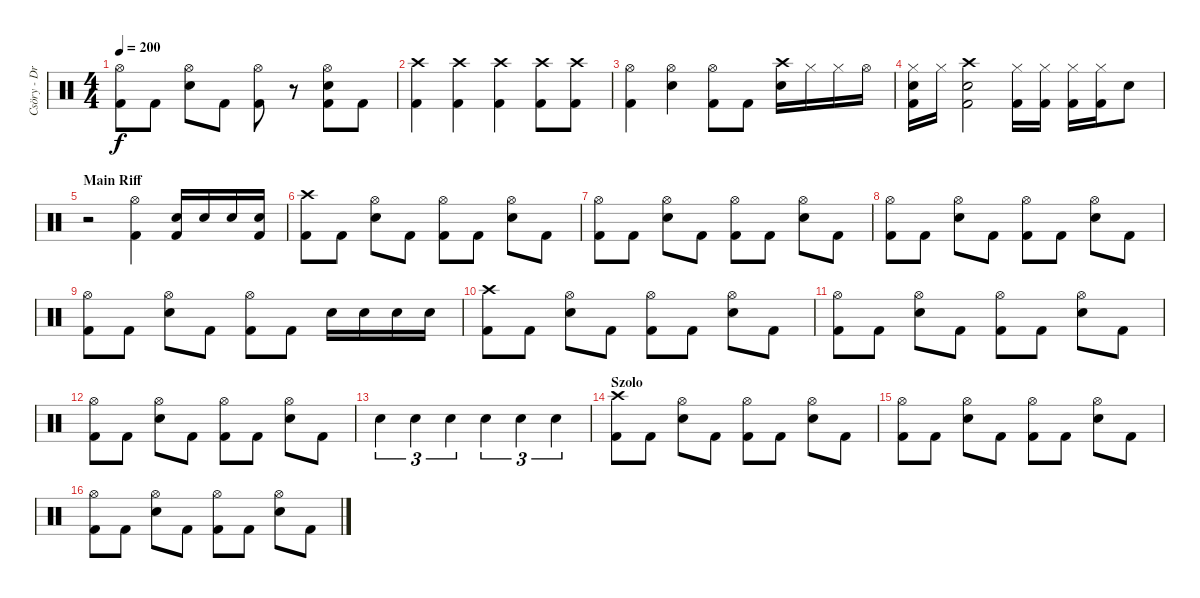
\track ("Csöry - DrumZ" "Csöry - Dr") {instrument percussion}
\staff {score}
\articulation defaults
\ts (4 4)
\tempo 200
\clef neutral
\ks c
("Hi-Hat (open)" "Kick (hit) 2").8{dy f} "Kick (hit) 2".8 ("Hi-Hat (open)" "Snare (hit) 2").8 "Kick (hit) 2".8 ("Hi-Hat (open)" "Kick (hit) 2").8 r.8 ("Hi-Hat (open)" "Snare (hit) 2" "Kick (hit) 2").8 "Kick (hit) 2".8 |
("Crash high (hit)" "Kick (hit) 2").4 ("Crash high (hit)" "Kick (hit) 2").4 ("Crash high (hit)" "Kick (hit) 2").4 ("Crash high (hit)" "Kick (hit) 2").8 ("Crash high (hit)" "Kick (hit) 2").8 |
("Hi-Hat (open)" "Kick (hit) 2").4 ("Hi-Hat (open)" "Snare (hit) 2").4 ("Hi-Hat (open)" "Kick (hit) 2").8 "Kick (hit) 2".8 ("Crash high (hit)" "Snare (hit) 2").16 "Hi-Hat (closed)".16 "Hi-Hat (closed)".16 "Hi-Hat (open)".16 |
("Hi-Hat (closed)" "Snare (hit) 2" "Kick (hit) 2").16 "Hi-Hat (closed)".16 ("Crash high (hit)" "Snare (hit) 2" "Kick (hit) 2").2 ("Hi-Hat (closed)" "Kick (hit) 2").16 ("Hi-Hat (closed)" "Kick (hit) 2").16 ("Hi-Hat (closed)" "Kick (hit) 2").16 ("Hi-Hat (closed)" "Kick (hit) 2").16 "Snare (hit) 2".8 |
\section ("" "Main Riff")
r.2 ("Hi-Hat (open)" "Kick (hit) 2").4 ("Snare (hit) 2" "Kick (hit) 2").16 "Snare (hit) 2".16 "Snare (hit) 2".16 ("Snare (hit) 2" "Kick (hit) 2").16 |
("Crash high (hit)" "Kick (hit) 2").8 "Kick (hit) 2".8 ("Hi-Hat (open)" "Snare (hit) 2").8 "Kick (hit) 2".8 ("Hi-Hat (open)" "Kick (hit) 2").8 "Kick (hit) 2".8 ("Hi-Hat (open)" "Snare (hit) 2").8 "Kick (hit) 2".8 |
("Hi-Hat (open)" "Kick (hit) 2").8 "Kick (hit) 2".8 ("Hi-Hat (open)" "Snare (hit) 2").8 "Kick (hit) 2".8 ("Hi-Hat (open)" "Kick (hit) 2").8 "Kick (hit) 2".8 ("Hi-Hat (open)" "Snare (hit) 2").8 "Kick (hit) 2".8 |
("Hi-Hat (open)" "Kick (hit) 2").8 "Kick (hit) 2".8 ("Hi-Hat (open)" "Snare (hit) 2").8 "Kick (hit) 2".8 ("Hi-Hat (open)" "Kick (hit) 2").8 "Kick (hit) 2".8 ("Hi-Hat (open)" "Snare (hit) 2").8 "Kick (hit) 2".8 |
("Hi-Hat (open)" "Kick (hit) 2").8 "Kick (hit) 2".8 ("Hi-Hat (open)" "Snare (hit) 2").8 "Kick (hit) 2".8 ("Hi-Hat (open)" "Kick (hit) 2").8 "Kick (hit) 2".8 "Snare (hit) 2".16 "Snare (hit) 2".16 "Snare (hit) 2".16 "Snare (hit) 2".16 |
("Crash high (hit)" "Kick (hit) 2").8 "Kick (hit) 2".8 ("Hi-Hat (open)" "Snare (hit) 2").8 "Kick (hit) 2".8 ("Hi-Hat (open)" "Kick (hit) 2").8 "Kick (hit) 2".8 ("Hi-Hat (open)" "Snare (hit) 2").8 "Kick (hit) 2".8 |
("Hi-Hat (open)" "Kick (hit) 2").8 "Kick (hit) 2".8 ("Hi-Hat (open)" "Snare (hit) 2").8 "Kick (hit) 2".8 ("Hi-Hat (open)" "Kick (hit) 2").8 "Kick (hit) 2".8 ("Hi-Hat (open)" "Snare (hit) 2").8 "Kick (hit) 2".8 |
("Hi-Hat (open)" "Kick (hit) 2").8 "Kick (hit) 2".8 ("Hi-Hat (open)" "Snare (hit) 2").8 "Kick (hit) 2".8 ("Hi-Hat (open)" "Kick (hit) 2").8 "Kick (hit) 2".8 ("Hi-Hat (open)" "Snare (hit) 2").8 "Kick (hit) 2".8 |
"Snare (hit) 2".4{tu (3 2)} "Snare (hit) 2".4{tu (3 2)} "Snare (hit) 2".4{tu (3 2)} "Snare (hit) 2".4{tu (3 2)} "Snare (hit) 2".4{tu (3 2)} "Snare (hit) 2".4{tu (3 2)} |
\section ("" "Szolo")
("Crash high (hit)" "Kick (hit) 2").8 "Kick (hit) 2".8 ("Hi-Hat (open)" "Snare (hit) 2").8 "Kick (hit) 2".8 ("Hi-Hat (open)" "Kick (hit) 2").8 "Kick (hit) 2".8 ("Hi-Hat (open)" "Snare (hit) 2").8 "Kick (hit) 2".8 |
("Hi-Hat (open)" "Kick (hit) 2").8 "Kick (hit) 2".8 ("Hi-Hat (open)" "Snare (hit) 2").8 "Kick (hit) 2".8 ("Hi-Hat (open)" "Kick (hit) 2").8 "Kick (hit) 2".8 ("Hi-Hat (open)" "Snare (hit) 2").8 "Kick (hit) 2".8 |
("Hi-Hat (open)" "Kick (hit) 2").8 "Kick (hit) 2".8 ("Hi-Hat (open)" "Snare (hit) 2").8 "Kick (hit) 2".8 ("Hi-Hat (open)" "Kick (hit) 2").8 "Kick (hit) 2".8 ("Hi-Hat (open)" "Snare (hit) 2").8 "Kick (hit) 2".8
